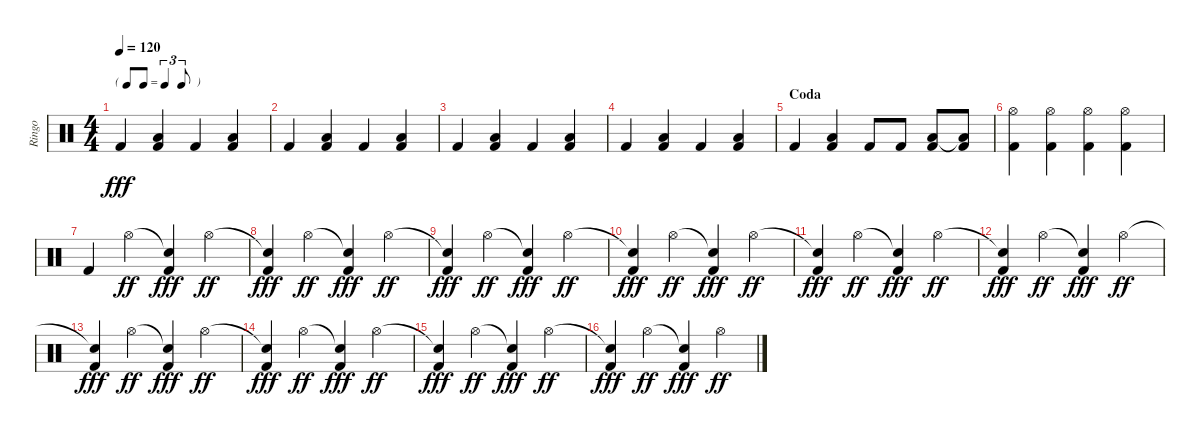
\track ("Ringo" "Ringo") {instrument percussion}
\staff {score}
\articulation defaults
\ts (4 4)
\tf triplet8th
\tempo 120
\clef neutral
\ks c "Kick (hit) 2".4{dy fff}
("Low Tom (hit)" "Kick (hit) 2").4 "Kick (hit) 2".4 ("Low Tom (hit)" "Kick (hit) 2").4 |
"Kick (hit) 2".4 ("Low Tom (hit)" "Kick (hit) 2").4 "Kick (hit) 2".4 ("Low Tom (hit)" "Kick (hit) 2").4 |
"Kick (hit) 2".4 ("Low Tom (hit)" "Kick (hit) 2").4 "Kick (hit) 2".4 ("Low Tom (hit)" "Kick (hit) 2").4 |
"Kick (hit) 2".4 ("Low Tom (hit)" "Kick (hit) 2").4 "Kick (hit) 2".4 ("Low Tom (hit)" "Kick (hit) 2").4 |
\section ("" "Coda")
"Kick (hit) 2".4 ("Low Tom (hit)" "Kick (hit) 2").4 "Kick (hit) 2".8 "Kick (hit) 2".8 ("Low Tom (hit)" "Kick (hit) 2").8 ("Low Tom (hit)"{t} "Kick (hit) 2").8 |
("Hi-Hat (open)" "Kick (hit) 2").4 ("Hi-Hat (open)" "Kick (hit) 2").4 ("Hi-Hat (open)" "Kick (hit) 2").4 ("Hi-Hat (open)" "Kick (hit) 2").4 |
"Kick (hit) 2".4 "Hi-Hat (open)".4{dy ff} ("Snare (hit)"{t} "Kick (hit) 2").4{dy fff} "Hi-Hat (open)".4{dy ff} |
("Snare (hit)"{t} "Kick (hit) 2").4{dy fff} "Hi-Hat (open)".4{dy ff} ("Snare (hit)"{t} "Kick (hit) 2").4{dy fff} "Hi-Hat (open)".4{dy ff} |
("Snare (hit)"{t} "Kick (hit) 2").4{dy fff} "Hi-Hat (open)".4{dy ff} ("Snare (hit)"{t} "Kick (hit) 2").4{dy fff} "Hi-Hat (open)".4{dy ff} |
("Snare (hit)"{t} "Kick (hit) 2").4{dy fff} "Hi-Hat (open)".4{dy ff} ("Snare (hit)"{t} "Kick (hit) 2").4{dy fff} "Hi-Hat (open)".4{dy ff} |
("Snare (hit)"{t} "Kick (hit) 2").4{dy fff} "Hi-Hat (open)".4{dy ff} ("Snare (hit)"{t} "Kick (hit) 2").4{dy fff} "Hi-Hat (open)".4{dy ff} |
("Snare (hit)"{t} "Kick (hit) 2").4{dy fff} "Hi-Hat (open)".4{dy ff} ("Snare (hit)"{t} "Kick (hit) 2").4{dy fff} "Hi-Hat (open)".4{dy ff} |
("Snare (hit)"{t} "Kick (hit) 2").4{dy fff} "Hi-Hat (open)".4{dy ff} ("Snare (hit)"{t} "Kick (hit) 2").4{dy fff} "Hi-Hat (open)".4{dy ff} |
("Snare (hit)"{t} "Kick (hit) 2").4{dy fff} "Hi-Hat (open)".4{dy ff} ("Snare (hit)"{t} "Kick (hit) 2").4{dy fff} "Hi-Hat (open)".4{dy ff} |
("Snare (hit)"{t} "Kick (hit) 2").4{dy fff} "Hi-Hat (open)".4{dy ff} ("Snare (hit)"{t} "Kick (hit) 2").4{dy fff} "Hi-Hat (open)".4{dy ff} |
("Snare (hit)"{t} "Kick (hit) 2").4{dy fff} "Hi-Hat (open)".4{dy ff} ("Snare (hit)"{t} "Kick (hit) 2").4{dy fff} "Hi-Hat (open)".4{dy ff}
